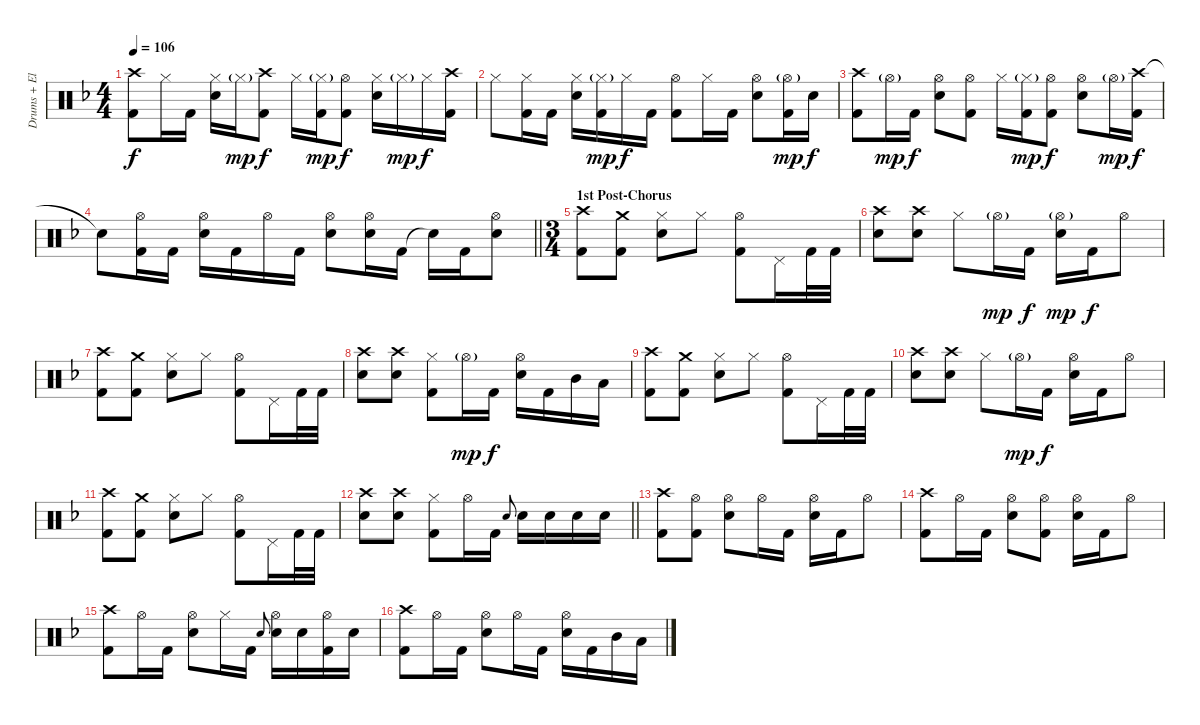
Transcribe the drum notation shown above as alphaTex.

\track ("Drums + Electronic drum pads" "Drums + El") {instrument percussion}
\staff {score}
\articulation defaults
\ts (4 4)
\tempo 106
\clef neutral
\ks dminor
("Crash high (hit)" "Kick (hit) 2").8{dy f} "Hi-Hat (closed)".16 "Kick (hit) 2".16 ("Hi-Hat (closed)" "Snare (hit) 2").16 "Hi-Hat (closed)"{g}.16{dy mp} ("Crash high (hit)" "Kick (hit) 2").8{dy f} "Hi-Hat (closed)".16 ("Hi-Hat (closed)"{g} "Kick (hit) 2").16{dy mp} ("Hi-Hat (open)" "Kick (hit) 2").8{dy f} ("Hi-Hat (closed)" "Snare (hit) 2").16 "Hi-Hat (closed)"{g}.16{dy mp} "Hi-Hat (closed)".16{dy f} ("Crash high (hit)" "Kick (hit) 2").16 |
"Hi-Hat (closed)".8 ("Hi-Hat (closed)" "Kick (hit) 2").16 "Kick (hit) 2".16 ("Hi-Hat (closed)" "Snare (hit) 2").16 ("Hi-Hat (closed)"{g} "Kick (hit) 2").16{dy mp} "Hi-Hat (closed)".16{dy f} "Kick (hit) 2".16 ("Hi-Hat (open)" "Kick (hit) 2").8 "Hi-Hat (closed)".16 "Kick (hit) 2".16 ("Hi-Hat (open)" "Snare (hit) 2").8 ("Hi-Hat (open)"{g} "Kick (hit) 2").16{dy mp} "Snare (hit) 2".16{dy f} |
("Crash high (hit)" "Kick (hit) 2").8 "Hi-Hat (open)"{g}.16{dy mp} "Kick (hit) 2".16{dy f} ("Hi-Hat (open)" "Snare (hit) 2").8 ("Hi-Hat (open)" "Kick (hit) 2").8 "Hi-Hat (closed)".16 ("Hi-Hat (closed)"{g} "Kick (hit) 2").16{dy mp} ("Hi-Hat (open)" "Kick (hit) 2").8{dy f} ("Hi-Hat (open)" "Snare (hit) 2").8 "Hi-Hat (open)"{g}.16{dy mp} ("Crash high (hit)" "Kick (hit) 2").16{dy f} |
\barLineRight lightlight "Snare (hit)"{t}.8
("Hi-Hat (open)" "Kick (hit) 2").16 "Kick (hit) 2".16 ("Hi-Hat (open)" "Snare (hit) 2").16 "Kick (hit) 2".16 "Hi-Hat (open)".16 "Kick (hit) 2".16 ("Hi-Hat (open)" "Snare (hit) 2").8 ("Hi-Hat (open)" "Snare (hit) 2").16 "Kick (hit) 2".16 "Snare (hit)"{t}.16 "Kick (hit) 2".16 ("Hi-Hat (open)" "Snare (hit) 2").8 |
\ts (3 4)
\section ("" "1st Post-Chorus")
("Crash high (hit)" "Kick (hit) 2").8 ("Crash medium (hit)" "Kick (hit) 2").8 ("Hi-Hat (closed)" "Snare (hit) 2").8 "Hi-Hat (closed)".8 ("Hi-Hat (open)" "Kick (hit) 2").8 "Pedal Hi-Hat (hit)".16 "Kick (hit) 2".32 "Kick (hit) 2".32 |
("Crash high (hit)" "Snare (hit) 2").8 ("Crash high (hit)" "Snare (hit) 2").8 "Hi-Hat (closed)".8 "Hi-Hat (open)"{g}.16{dy mp} "Kick (hit) 2".16{dy f} ("Hi-Hat (open)"{g} "Snare (hit) 2").16{dy mp} "Kick (hit) 2".16{dy f} "Hi-Hat (open)".8 |
("Crash high (hit)" "Kick (hit) 2").8 ("Crash medium (hit)" "Kick (hit) 2").8 ("Hi-Hat (closed)" "Snare (hit) 2").8 "Hi-Hat (closed)".8 ("Hi-Hat (open)" "Kick (hit) 2").8 "Pedal Hi-Hat (hit)".16 "Kick (hit) 2".32 "Kick (hit) 2".32 |
("Crash high (hit)" "Snare (hit) 2").8 ("Crash high (hit)" "Snare (hit) 2").8 ("Hi-Hat (closed)" "Kick (hit) 2").8 "Hi-Hat (open)"{g}.16{dy mp} "Kick (hit) 2".16{dy f} ("Hi-Hat (open)" "Snare (hit) 2").16 "Kick (hit) 2".16 "Mid Tom (hit)".16 "Low Tom (hit)".16 |
("Crash high (hit)" "Kick (hit) 2").8 ("Crash medium (hit)" "Kick (hit) 2").8 ("Hi-Hat (closed)" "Snare (hit) 2").8 "Hi-Hat (closed)".8 ("Hi-Hat (open)" "Kick (hit) 2").8 "Pedal Hi-Hat (hit)".16 "Kick (hit) 2".32 "Kick (hit) 2".32 |
("Crash high (hit)" "Snare (hit) 2").8 ("Crash high (hit)" "Snare (hit) 2").8 "Hi-Hat (closed)".8 "Hi-Hat (open)"{g}.16{dy mp} "Kick (hit) 2".16{dy f} ("Hi-Hat (open)" "Snare (hit) 2").16 "Kick (hit) 2".16 "Hi-Hat (open)".8 |
("Crash high (hit)" "Kick (hit) 2").8 ("Crash medium (hit)" "Kick (hit) 2").8 ("Hi-Hat (closed)" "Snare (hit) 2").8 "Hi-Hat (closed)".8 ("Hi-Hat (open)" "Kick (hit) 2").8 "Pedal Hi-Hat (hit)".16 "Kick (hit) 2".32 "Kick (hit) 2".32 |
\barLineRight lightlight
("Crash high (hit)" "Snare (hit) 2").8 ("Crash high (hit)" "Snare (hit) 2").8 ("Hi-Hat (closed)" "Kick (hit) 2").8 "Hi-Hat (open)".16 "Kick (hit) 2".16 "Snare (hit) 2".8{gr onbeat} "Snare (hit) 2".16 "Snare (hit) 2".16 "Snare (hit) 2".16 "Snare (hit) 2".16 |
("Crash high (hit)" "Kick (hit) 2").8 ("Hi-Hat (open)" "Kick (hit) 2").8 ("Hi-Hat (open)" "Snare (hit) 2").8 "Hi-Hat (open)".16 "Kick (hit) 2".16 ("Hi-Hat (open)" "Snare (hit) 2").16 "Kick (hit) 2".16 "Hi-Hat (open)".8 |
("Crash high (hit)" "Kick (hit) 2").8 "Hi-Hat (open)".16 "Kick (hit) 2".16 ("Hi-Hat (open)" "Snare (hit) 2").8 ("Hi-Hat (open)" "Kick (hit) 2").8 ("Hi-Hat (open)" "Snare (hit) 2").16 "Kick (hit) 2".16 "Hi-Hat (open)".8 |
("Crash high (hit)" "Kick (hit) 2").8 "Hi-Hat (open)".16 "Kick (hit) 2".16 ("Hi-Hat (open)" "Snare (hit) 2").8 "Hi-Hat (closed)".16 "Kick (hit) 2".16 "Snare (hit) 2".8{gr onbeat} ("Hi-Hat (open)" "Snare (hit) 2").16 "Snare (hit) 2".16 ("Hi-Hat (open)" "Kick (hit) 2").16 "Snare (hit) 2".16 |
("Crash high (hit)" "Kick (hit) 2").8 "Hi-Hat (open)".16 "Kick (hit) 2".16 ("Hi-Hat (open)" "Snare (hit) 2").8 "Hi-Hat (open)".16 "Kick (hit) 2".16 ("Hi-Hat (open)" "Snare (hit) 2").16 "Kick (hit) 2".16 "Mid Tom (hit)".16 "Low Tom (hit)".16
